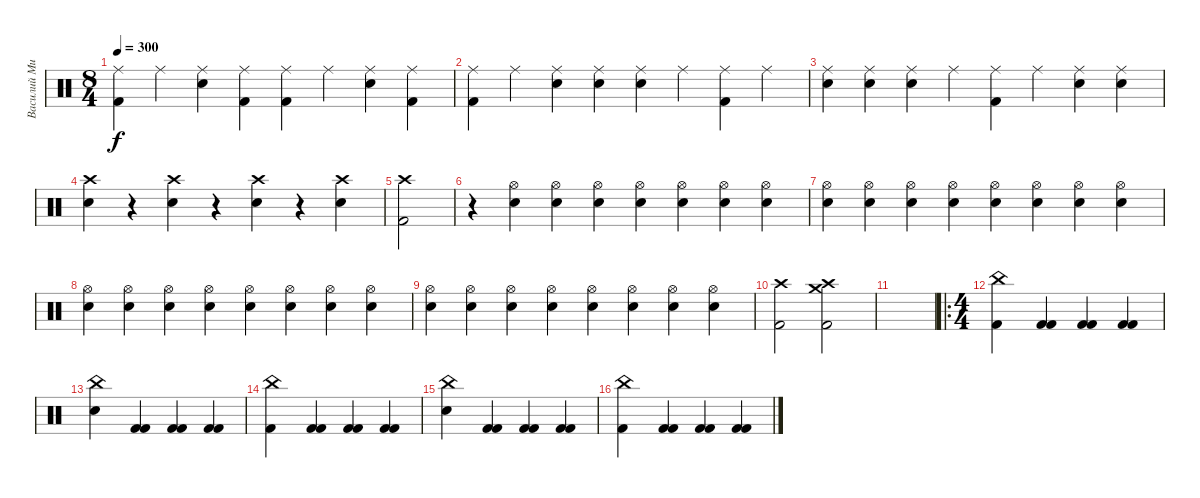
\track ("Василий Михалыч-ударные" "Василий Ми") {instrument percussion}
\staff {score}
\articulation defaults
\ts (8 4)
\tempo 300
\clef neutral
\ks c
("Kick (hit) 2" "Ride (middle)").4{dy f} "Ride (middle)".4 ("Electric Snare (hit)" "Ride (middle)").4 ("Kick (hit) 2" "Ride (middle)").4 ("Kick (hit) 2" "Ride (middle)").4 "Ride (middle)".4 ("Electric Snare (hit)" "Ride (middle)").4 ("Kick (hit) 2" "Ride (middle)").4 |
("Kick (hit) 2" "Ride (middle)").4 "Ride (middle)".4 ("Electric Snare (hit)" "Ride (middle)").4 ("Electric Snare (hit)" "Ride (middle)").4 ("Electric Snare (hit)" "Ride (middle)").4 "Ride (middle)".4 ("Kick (hit) 2" "Ride (middle)").4 "Ride (middle)".4 |
("Electric Snare (hit)" "Ride (middle)").4 ("Electric Snare (hit)" "Ride (middle)").4 ("Electric Snare (hit)" "Ride (middle)").4 "Ride (middle)".4 ("Kick (hit) 2" "Ride (middle)").4 "Ride (middle)".4 ("Electric Snare (hit)" "Ride (middle)").4 ("Electric Snare (hit)" "Ride (middle)").4 |
("Electric Snare (hit)" "Crash high (hit)").4 r.4 ("Electric Snare (hit)" "Crash high (hit)").4 r.4 ("Electric Snare (hit)" "Crash high (hit)").4 r.4 ("Electric Snare (hit)" "Crash high (hit)").4 |
("Kick (hit) 2" "Crash high (hit)").2 |
r.4 ("Electric Snare (hit)" "Hi-Hat (open)").4 ("Electric Snare (hit)" "Hi-Hat (open)").4 ("Electric Snare (hit)" "Hi-Hat (open)").4 ("Electric Snare (hit)" "Hi-Hat (open)").4 ("Electric Snare (hit)" "Hi-Hat (open)").4 ("Electric Snare (hit)" "Hi-Hat (open)").4 ("Electric Snare (hit)" "Hi-Hat (open)").4 |
("Electric Snare (hit)" "Hi-Hat (open)").4 ("Electric Snare (hit)" "Hi-Hat (open)").4 ("Electric Snare (hit)" "Hi-Hat (open)").4 ("Electric Snare (hit)" "Hi-Hat (open)").4 ("Electric Snare (hit)" "Hi-Hat (open)").4 ("Electric Snare (hit)" "Hi-Hat (open)").4 ("Electric Snare (hit)" "Hi-Hat (open)").4 ("Electric Snare (hit)" "Hi-Hat (open)").4 |
("Electric Snare (hit)" "Hi-Hat (open)").4 ("Electric Snare (hit)" "Hi-Hat (open)").4 ("Electric Snare (hit)" "Hi-Hat (open)").4 ("Electric Snare (hit)" "Hi-Hat (open)").4 ("Electric Snare (hit)" "Hi-Hat (open)").4 ("Electric Snare (hit)" "Hi-Hat (open)").4 ("Electric Snare (hit)" "Hi-Hat (open)").4 ("Electric Snare (hit)" "Hi-Hat (open)").4 |
("Electric Snare (hit)" "Hi-Hat (open)").4 ("Electric Snare (hit)" "Hi-Hat (open)").4 ("Electric Snare (hit)" "Hi-Hat (open)").4 ("Electric Snare (hit)" "Hi-Hat (open)").4 ("Electric Snare (hit)" "Hi-Hat (open)").4 ("Electric Snare (hit)" "Hi-Hat (open)").4 ("Electric Snare (hit)" "Hi-Hat (open)").4 ("Electric Snare (hit)" "Hi-Hat (open)").4 |
("Kick (hit) 2" "Crash high (hit)").2 ("Kick (hit) 2" "Crash medium (hit)" "Crash high (hit)").2 |
|
\ro
\ts (4 4)
("Kick (hit) 2" "China (hit)").4 ("Kick (hit) 2" "Kick (hit) 2").4 ("Kick (hit) 2" "Kick (hit) 2").4 ("Kick (hit) 2" "Kick (hit) 2").4 |
("Electric Snare (hit)" "China (hit)").4 ("Kick (hit) 2" "Kick (hit) 2").4 ("Kick (hit) 2" "Kick (hit) 2").4 ("Kick (hit) 2" "Kick (hit) 2").4 |
("Kick (hit) 2" "China (hit)").4 ("Kick (hit) 2" "Kick (hit) 2").4 ("Kick (hit) 2" "Kick (hit) 2").4 ("Kick (hit) 2" "Kick (hit) 2").4 |
("Electric Snare (hit)" "China (hit)").4 ("Kick (hit) 2" "Kick (hit) 2").4 ("Kick (hit) 2" "Kick (hit) 2").4 ("Kick (hit) 2" "Kick (hit) 2").4 |
("Kick (hit) 2" "China (hit)").4 ("Kick (hit) 2" "Kick (hit) 2").4 ("Kick (hit) 2" "Kick (hit) 2").4 ("Kick (hit) 2" "Kick (hit) 2").4
